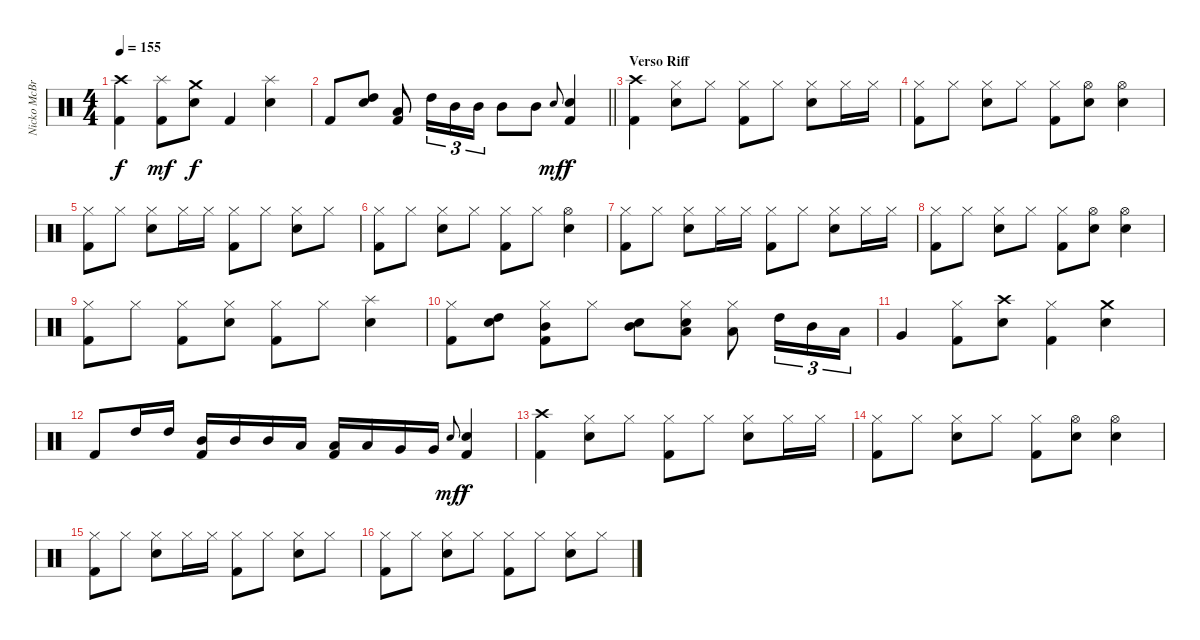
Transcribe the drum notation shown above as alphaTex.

\track ("Nicko McBrain" "Nicko McBr") {instrument percussion}
\staff {score}
\articulation defaults
\ts (4 4)
\tempo 155
\clef neutral
\ks c
("Crash high (hit)" "Kick (hit) 2").4{dy f} ("Splash (hit)" "Kick (hit) 2").8{dy mf} ("Snare (hit) 2" "Crash medium (hit)").8{dy f} "Kick (hit) 2".4 ("Snare (hit) 2" "Splash (hit)").4 |
\barLineRight lightlight "Kick (hit) 2".8
("Snare (hit) 2" "High Tom (hit)").8 ("Low Tom (hit)" "Kick (hit) 2").8 "High Tom (hit)".16{tu (3 2)} "Mid Tom (hit)".16{tu (3 2)} "Mid Tom (hit)".16{tu (3 2)} "Mid Tom (hit)".8 "Mid Tom (hit)".8 "Snare (hit) 2".8{gr onbeat dy mf} ("Snare (hit) 2" "Kick (hit) 2").4{dy f} |
\section ("" "Verso Riff")
("Crash high (hit)" "Kick (hit) 2").4 ("Hi-Hat (closed)" "Snare (hit) 2").8 "Hi-Hat (closed)".8 ("Hi-Hat (closed)" "Kick (hit) 2").8 "Hi-Hat (closed)".8 ("Hi-Hat (closed)" "Snare (hit) 2").8 "Hi-Hat (closed)".16 "Hi-Hat (closed)".16 |
("Hi-Hat (closed)" "Kick (hit) 2").8 "Hi-Hat (closed)".8 ("Hi-Hat (closed)" "Snare (hit) 2").8 "Hi-Hat (closed)".8 ("Hi-Hat (closed)" "Kick (hit) 2").8 ("Hi-Hat (open)" "Snare (hit) 2").8 ("Hi-Hat (open)" "Snare (hit) 2").4 |
("Hi-Hat (closed)" "Kick (hit) 2").8 "Hi-Hat (closed)".8 ("Hi-Hat (closed)" "Snare (hit) 2").8 "Hi-Hat (closed)".16 "Hi-Hat (closed)".16 ("Hi-Hat (closed)" "Kick (hit) 2").8 "Hi-Hat (closed)".8 ("Hi-Hat (closed)" "Snare (hit) 2").8 "Hi-Hat (closed)".8 |
("Hi-Hat (closed)" "Kick (hit) 2").8 "Hi-Hat (closed)".8 ("Hi-Hat (closed)" "Snare (hit) 2").8 "Hi-Hat (closed)".8 ("Hi-Hat (closed)" "Kick (hit) 2").8 "Hi-Hat (closed)".8 ("Hi-Hat (open)" "Snare (hit) 2").4 |
("Hi-Hat (closed)" "Kick (hit) 2").8 "Hi-Hat (closed)".8 ("Hi-Hat (closed)" "Snare (hit) 2").8 "Hi-Hat (closed)".16 "Hi-Hat (closed)".16 ("Hi-Hat (closed)" "Kick (hit) 2").8 "Hi-Hat (closed)".8 ("Hi-Hat (closed)" "Snare (hit) 2").8 "Hi-Hat (closed)".16 "Hi-Hat (closed)".16 |
("Hi-Hat (closed)" "Kick (hit) 2").8 "Hi-Hat (closed)".8 ("Hi-Hat (closed)" "Snare (hit) 2").8 "Hi-Hat (closed)".8 ("Hi-Hat (closed)" "Kick (hit) 2").8 ("Hi-Hat (open)" "Snare (hit) 2").8 ("Hi-Hat (open)" "Snare (hit) 2").4 |
("Hi-Hat (closed)" "Kick (hit) 2").8 "Hi-Hat (closed)".8 ("Hi-Hat (closed)" "Kick (hit) 2").8 ("Hi-Hat (closed)" "Snare (hit) 2").8 ("Hi-Hat (closed)" "Kick (hit) 2").8 "Hi-Hat (closed)".8 ("Snare (hit) 2" "Splash (hit)").4 |
("Hi-Hat (closed)" "Kick (hit) 2").8 ("Snare (hit) 2" "High Tom (hit)").8 ("Hi-Hat (closed)" "Mid Tom (hit)" "Kick (hit) 2").8 "Hi-Hat (closed)".8 ("Snare (hit) 2" "Mid Tom (hit)").8 ("Hi-Hat (closed)" "Snare (hit) 2" "Low Tom (hit)").8 ("Hi-Hat (closed)" "Low Tom (hit)").8 "High Tom (hit)".16{tu (3 2)} "Mid Tom (hit)".16{tu (3 2)} "Low Tom (hit)".16{tu (3 2)} |
"Very Low Tom (hit)".4 ("Hi-Hat (closed)" "Kick (hit) 2").8 ("Snare (hit) 2" "Crash high (hit)").8 ("Hi-Hat (closed)" "Kick (hit) 2").4 ("Snare (hit) 2" "Crash medium (hit)").4 |
"Kick (hit) 2".8 "High Tom (hit)".16 "High Tom (hit)".16 ("Mid Tom (hit)" "Kick (hit) 2").16 "Mid Tom (hit)".16 "Mid Tom (hit)".16 "Low Tom (hit)".16 ("Low Tom (hit)" "Kick (hit) 2").16 "Low Tom (hit)".16 "Very Low Tom (hit)".16 "Very Low Tom (hit)".16 "Snare (hit) 2".8{gr onbeat dy mf} ("Snare (hit) 2" "Kick (hit) 2").4{dy f} |
("Crash high (hit)" "Kick (hit) 2").4 ("Hi-Hat (closed)" "Snare (hit) 2").8 "Hi-Hat (closed)".8 ("Hi-Hat (closed)" "Kick (hit) 2").8 "Hi-Hat (closed)".8 ("Hi-Hat (closed)" "Snare (hit) 2").8 "Hi-Hat (closed)".16 "Hi-Hat (closed)".16 |
("Hi-Hat (closed)" "Kick (hit) 2").8 "Hi-Hat (closed)".8 ("Hi-Hat (closed)" "Snare (hit) 2").8 "Hi-Hat (closed)".8 ("Hi-Hat (closed)" "Kick (hit) 2").8 ("Hi-Hat (open)" "Snare (hit) 2").8 ("Hi-Hat (open)" "Snare (hit) 2").4 |
("Hi-Hat (closed)" "Kick (hit) 2").8 "Hi-Hat (closed)".8 ("Hi-Hat (closed)" "Snare (hit) 2").8 "Hi-Hat (closed)".16 "Hi-Hat (closed)".16 ("Hi-Hat (closed)" "Kick (hit) 2").8 "Hi-Hat (closed)".8 ("Hi-Hat (closed)" "Snare (hit) 2").8 "Hi-Hat (closed)".8 |
("Hi-Hat (closed)" "Kick (hit) 2").8 "Hi-Hat (closed)".8 ("Hi-Hat (closed)" "Snare (hit) 2").8 "Hi-Hat (closed)".8 ("Hi-Hat (closed)" "Kick (hit) 2").8 "Hi-Hat (closed)".8 ("Hi-Hat (closed)" "Snare (hit) 2").8 "Hi-Hat (closed)".8
